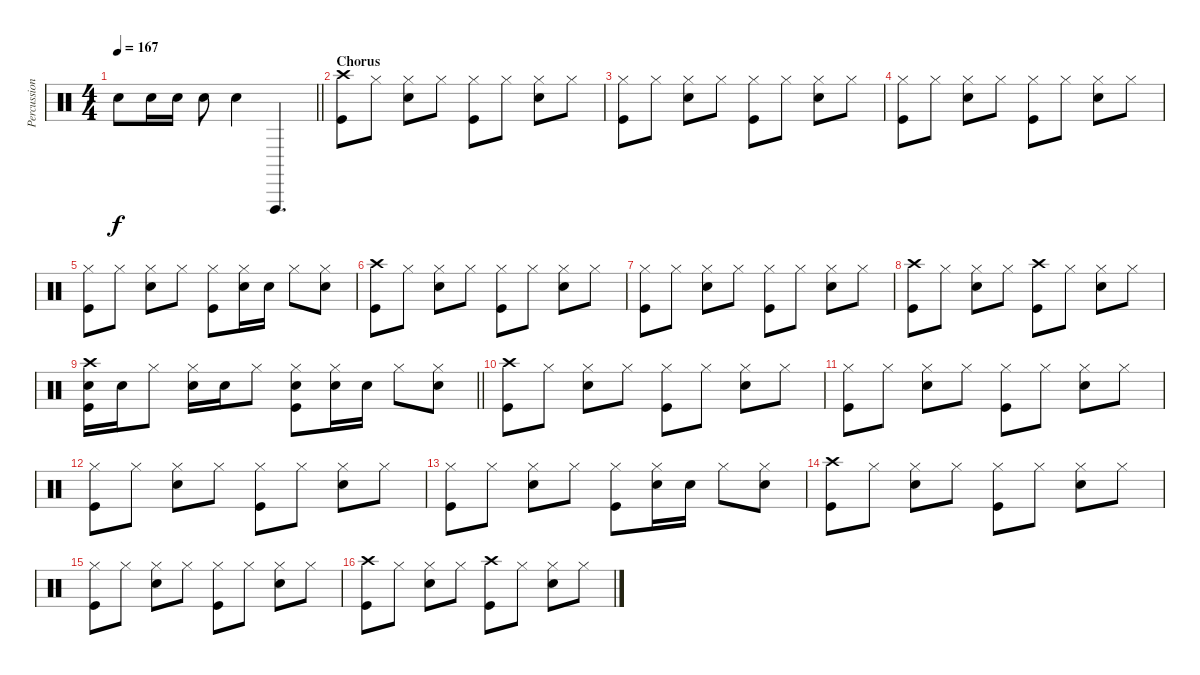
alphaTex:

\track ("Percussion" "Percussion") {instrument percussion}
\staff {score}
\articulation defaults
\ts (4 4)
\tempo 167
\clef neutral
\barLineRight lightlight
\ks c "Electric Snare (hit)".8{dy f} "Electric Snare (hit)".16 "Electric Snare (hit)".16 "Electric Snare (hit)".8 "Electric Snare (hit)".4 "Vibraslap (hit)".4{d}
|
\section ("" "Chorus")
("Crash high (hit)" "Kick (hit)").8 "Hi-Hat (closed)".8 ("Hi-Hat (closed)" "Electric Snare (hit)").8 "Hi-Hat (closed)".8 ("Hi-Hat (closed)" "Kick (hit)").8 "Hi-Hat (closed)".8 ("Hi-Hat (closed)" "Electric Snare (hit)").8 "Hi-Hat (closed)".8 |
("Hi-Hat (closed)" "Kick (hit)").8 "Hi-Hat (closed)".8 ("Hi-Hat (closed)" "Electric Snare (hit)").8 "Hi-Hat (closed)".8 ("Hi-Hat (closed)" "Kick (hit)").8 "Hi-Hat (closed)".8 ("Hi-Hat (closed)" "Electric Snare (hit)").8 "Hi-Hat (closed)".8 |
("Hi-Hat (closed)" "Kick (hit)").8 "Hi-Hat (closed)".8 ("Hi-Hat (closed)" "Electric Snare (hit)").8 "Hi-Hat (closed)".8 ("Hi-Hat (closed)" "Kick (hit)").8 "Hi-Hat (closed)".8 ("Hi-Hat (closed)" "Electric Snare (hit)").8 "Hi-Hat (closed)".8 |
("Hi-Hat (closed)" "Kick (hit)").8 "Hi-Hat (closed)".8 ("Hi-Hat (closed)" "Electric Snare (hit)").8 "Hi-Hat (closed)".8 ("Hi-Hat (closed)" "Kick (hit)").8 ("Hi-Hat (closed)" "Electric Snare (hit)").16 "Electric Snare (hit)".16 "Hi-Hat (closed)".8 ("Hi-Hat (closed)" "Electric Snare (hit)").8 |
("Crash high (hit)" "Kick (hit)").8 "Hi-Hat (closed)".8 ("Hi-Hat (closed)" "Electric Snare (hit)").8 "Hi-Hat (closed)".8 ("Hi-Hat (closed)" "Kick (hit)").8 "Hi-Hat (closed)".8 ("Hi-Hat (closed)" "Electric Snare (hit)").8 "Hi-Hat (closed)".8 |
("Hi-Hat (closed)" "Kick (hit)").8 "Hi-Hat (closed)".8 ("Hi-Hat (closed)" "Electric Snare (hit)").8 "Hi-Hat (closed)".8 ("Hi-Hat (closed)" "Kick (hit)").8 "Hi-Hat (closed)".8 ("Hi-Hat (closed)" "Electric Snare (hit)").8 "Hi-Hat (closed)".8 |
("Crash high (hit)" "Kick (hit)").8 "Hi-Hat (closed)".8 ("Hi-Hat (closed)" "Electric Snare (hit)").8 "Hi-Hat (closed)".8 ("Crash high (hit)" "Kick (hit)").8 "Hi-Hat (closed)".8 ("Hi-Hat (closed)" "Electric Snare (hit)").8 "Hi-Hat (closed)".8 |
\barLineRight lightlight
("Crash high (hit)" "Electric Snare (hit)" "Kick (hit)").16 "Electric Snare (hit)".16 "Hi-Hat (closed)".8 ("Hi-Hat (closed)" "Electric Snare (hit)").16 "Electric Snare (hit)".16 "Hi-Hat (closed)".8 ("Hi-Hat (closed)" "Electric Snare (hit)" "Kick (hit)").8 ("Hi-Hat (closed)" "Electric Snare (hit)").16 "Electric Snare (hit)".16 "Hi-Hat (closed)".8 ("Hi-Hat (closed)" "Electric Snare (hit)").8 |
("Crash high (hit)" "Kick (hit)").8 "Hi-Hat (closed)".8 ("Hi-Hat (closed)" "Electric Snare (hit)").8 "Hi-Hat (closed)".8 ("Hi-Hat (closed)" "Kick (hit)").8 "Hi-Hat (closed)".8 ("Hi-Hat (closed)" "Electric Snare (hit)").8 "Hi-Hat (closed)".8 |
("Hi-Hat (closed)" "Kick (hit)").8 "Hi-Hat (closed)".8 ("Hi-Hat (closed)" "Electric Snare (hit)").8 "Hi-Hat (closed)".8 ("Hi-Hat (closed)" "Kick (hit)").8 "Hi-Hat (closed)".8 ("Hi-Hat (closed)" "Electric Snare (hit)").8 "Hi-Hat (closed)".8 |
("Hi-Hat (closed)" "Kick (hit)").8 "Hi-Hat (closed)".8 ("Hi-Hat (closed)" "Electric Snare (hit)").8 "Hi-Hat (closed)".8 ("Hi-Hat (closed)" "Kick (hit)").8 "Hi-Hat (closed)".8 ("Hi-Hat (closed)" "Electric Snare (hit)").8 "Hi-Hat (closed)".8 |
("Hi-Hat (closed)" "Kick (hit)").8 "Hi-Hat (closed)".8 ("Hi-Hat (closed)" "Electric Snare (hit)").8 "Hi-Hat (closed)".8 ("Hi-Hat (closed)" "Kick (hit)").8 ("Hi-Hat (closed)" "Electric Snare (hit)").16 "Electric Snare (hit)".16 "Hi-Hat (closed)".8 ("Hi-Hat (closed)" "Electric Snare (hit)").8 |
("Crash high (hit)" "Kick (hit)").8 "Hi-Hat (closed)".8 ("Hi-Hat (closed)" "Electric Snare (hit)").8 "Hi-Hat (closed)".8 ("Hi-Hat (closed)" "Kick (hit)").8 "Hi-Hat (closed)".8 ("Hi-Hat (closed)" "Electric Snare (hit)").8 "Hi-Hat (closed)".8 |
("Hi-Hat (closed)" "Kick (hit)").8 "Hi-Hat (closed)".8 ("Hi-Hat (closed)" "Electric Snare (hit)").8 "Hi-Hat (closed)".8 ("Hi-Hat (closed)" "Kick (hit)").8 "Hi-Hat (closed)".8 ("Hi-Hat (closed)" "Electric Snare (hit)").8 "Hi-Hat (closed)".8 |
("Crash high (hit)" "Kick (hit)").8 "Hi-Hat (closed)".8 ("Hi-Hat (closed)" "Electric Snare (hit)").8 "Hi-Hat (closed)".8 ("Crash high (hit)" "Kick (hit)").8 "Hi-Hat (closed)".8 ("Hi-Hat (closed)" "Electric Snare (hit)").8 "Hi-Hat (closed)".8
